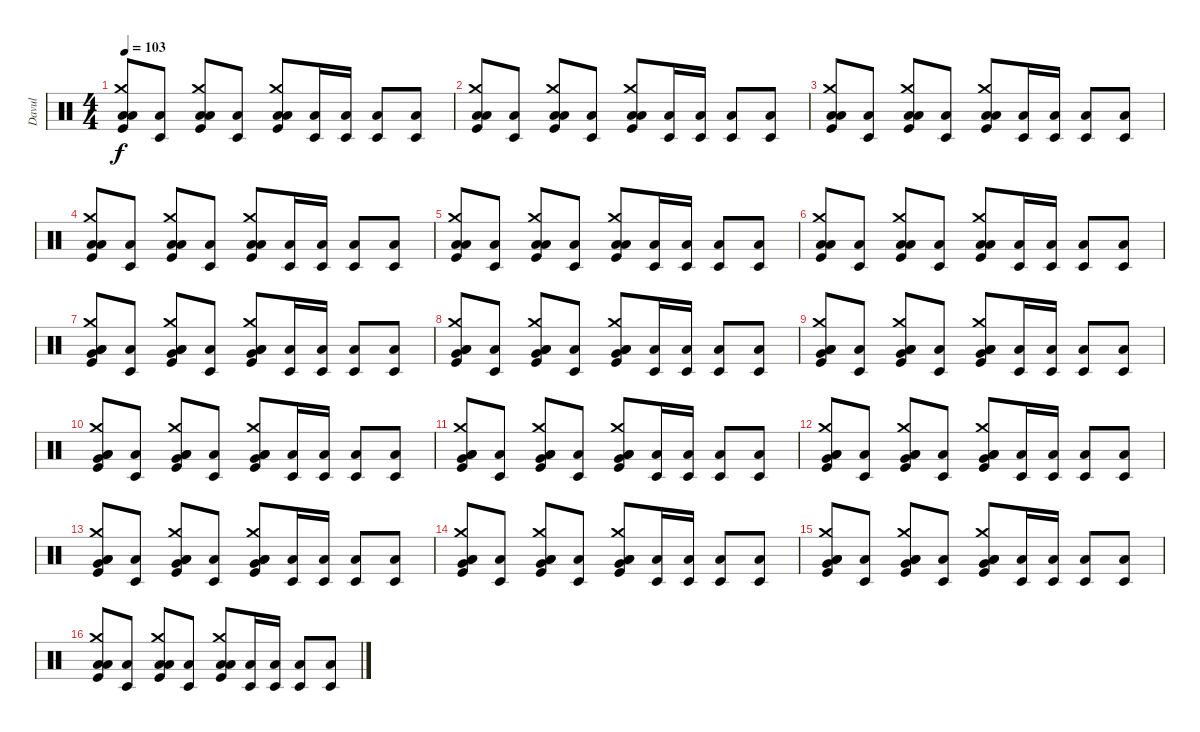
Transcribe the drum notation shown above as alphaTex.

\track ("Davul" "Davul") {instrument percussion}
\staff {score}
\articulation defaults
\ts (4 4)
\tempo 103
\clef neutral
\ks c
("Kick (hit)" "Low Tom (hit)" "Low Floor Tom (hit)" "Crash medium (hit)").8{dy f} ("Timbale low (hit)" "Low Floor Tom (hit)").8 ("Kick (hit)" "Low Tom (hit)" "Low Floor Tom (hit)" "Crash medium (hit)").8 ("Timbale low (hit)" "Low Floor Tom (hit)").8 ("Kick (hit)" "Low Tom (hit)" "Low Floor Tom (hit)" "Crash medium (hit)").8 ("Timbale low (hit)" "Low Floor Tom (hit)").16 ("Timbale low (hit)" "Low Floor Tom (hit)").16 ("Timbale low (hit)" "Low Floor Tom (hit)").8 ("Timbale low (hit)" "Low Floor Tom (hit)").8 |
("Kick (hit)" "Low Tom (hit)" "Low Floor Tom (hit)" "Crash medium (hit)").8 ("Timbale low (hit)" "Low Floor Tom (hit)").8 ("Kick (hit)" "Low Tom (hit)" "Low Floor Tom (hit)" "Crash medium (hit)").8 ("Timbale low (hit)" "Low Floor Tom (hit)").8 ("Kick (hit)" "Low Tom (hit)" "Low Floor Tom (hit)" "Crash medium (hit)").8 ("Timbale low (hit)" "Low Floor Tom (hit)").16 ("Timbale low (hit)" "Low Floor Tom (hit)").16 ("Timbale low (hit)" "Low Floor Tom (hit)").8 ("Timbale low (hit)" "Low Floor Tom (hit)").8 |
("Kick (hit)" "Low Tom (hit)" "Low Floor Tom (hit)" "Crash medium (hit)").8 ("Timbale low (hit)" "Low Floor Tom (hit)").8 ("Kick (hit)" "Low Tom (hit)" "Low Floor Tom (hit)" "Crash medium (hit)").8 ("Timbale low (hit)" "Low Floor Tom (hit)").8 ("Kick (hit)" "Low Tom (hit)" "Low Floor Tom (hit)" "Crash medium (hit)").8 ("Timbale low (hit)" "Low Floor Tom (hit)").16 ("Timbale low (hit)" "Low Floor Tom (hit)").16 ("Timbale low (hit)" "Low Floor Tom (hit)").8 ("Timbale low (hit)" "Low Floor Tom (hit)").8 |
("Kick (hit)" "Low Tom (hit)" "Low Floor Tom (hit)" "Crash medium (hit)").8 ("Timbale low (hit)" "Low Floor Tom (hit)").8 ("Kick (hit)" "Low Tom (hit)" "Low Floor Tom (hit)" "Crash medium (hit)").8 ("Timbale low (hit)" "Low Floor Tom (hit)").8 ("Kick (hit)" "Low Tom (hit)" "Low Floor Tom (hit)" "Crash medium (hit)").8 ("Timbale low (hit)" "Low Floor Tom (hit)").16 ("Timbale low (hit)" "Low Floor Tom (hit)").16 ("Timbale low (hit)" "Low Floor Tom (hit)").8 ("Timbale low (hit)" "Low Floor Tom (hit)").8 |
("Kick (hit)" "Low Tom (hit)" "Low Floor Tom (hit)" "Crash medium (hit)").8 ("Timbale low (hit)" "Low Floor Tom (hit)").8 ("Kick (hit)" "Low Tom (hit)" "Low Floor Tom (hit)" "Crash medium (hit)").8 ("Timbale low (hit)" "Low Floor Tom (hit)").8 ("Kick (hit)" "Low Tom (hit)" "Low Floor Tom (hit)" "Crash medium (hit)").8 ("Timbale low (hit)" "Low Floor Tom (hit)").16 ("Timbale low (hit)" "Low Floor Tom (hit)").16 ("Timbale low (hit)" "Low Floor Tom (hit)").8 ("Timbale low (hit)" "Low Floor Tom (hit)").8 |
("Kick (hit)" "Low Tom (hit)" "Low Floor Tom (hit)" "Crash medium (hit)").8 ("Timbale low (hit)" "Low Floor Tom (hit)").8 ("Kick (hit)" "Low Tom (hit)" "Low Floor Tom (hit)" "Crash medium (hit)").8 ("Timbale low (hit)" "Low Floor Tom (hit)").8 ("Kick (hit)" "Low Tom (hit)" "Low Floor Tom (hit)" "Crash medium (hit)").8 ("Timbale low (hit)" "Low Floor Tom (hit)").16 ("Timbale low (hit)" "Low Floor Tom (hit)").16 ("Timbale low (hit)" "Low Floor Tom (hit)").8 ("Timbale low (hit)" "Low Floor Tom (hit)").8 |
("Kick (hit)" "Low Tom (hit)" "Low Floor Tom (hit)" "Very Low Tom (hit)" "Crash medium (hit)").8 ("Timbale low (hit)" "Low Floor Tom (hit)").8 ("Kick (hit)" "Low Tom (hit)" "Low Floor Tom (hit)" "Very Low Tom (hit)" "Crash medium (hit)").8 ("Timbale low (hit)" "Low Floor Tom (hit)").8 ("Kick (hit)" "Low Tom (hit)" "Low Floor Tom (hit)" "Very Low Tom (hit)" "Crash medium (hit)").8 ("Timbale low (hit)" "Low Floor Tom (hit)").16 ("Timbale low (hit)" "Low Floor Tom (hit)").16 ("Timbale low (hit)" "Low Floor Tom (hit)").8 ("Timbale low (hit)" "Low Floor Tom (hit)").8 |
("Kick (hit)" "Low Tom (hit)" "Low Floor Tom (hit)" "Very Low Tom (hit)" "Crash medium (hit)").8 ("Timbale low (hit)" "Low Floor Tom (hit)").8 ("Kick (hit)" "Low Tom (hit)" "Low Floor Tom (hit)" "Very Low Tom (hit)" "Crash medium (hit)").8 ("Timbale low (hit)" "Low Floor Tom (hit)").8 ("Kick (hit)" "Low Tom (hit)" "Low Floor Tom (hit)" "Very Low Tom (hit)" "Crash medium (hit)").8 ("Timbale low (hit)" "Low Floor Tom (hit)").16 ("Timbale low (hit)" "Low Floor Tom (hit)").16 ("Timbale low (hit)" "Low Floor Tom (hit)").8 ("Timbale low (hit)" "Low Floor Tom (hit)").8 |
("Kick (hit)" "Low Tom (hit)" "Low Floor Tom (hit)" "Very Low Tom (hit)" "Crash medium (hit)").8 ("Timbale low (hit)" "Low Floor Tom (hit)").8 ("Kick (hit)" "Low Tom (hit)" "Low Floor Tom (hit)" "Very Low Tom (hit)" "Crash medium (hit)").8 ("Timbale low (hit)" "Low Floor Tom (hit)").8 ("Kick (hit)" "Low Tom (hit)" "Low Floor Tom (hit)" "Very Low Tom (hit)" "Crash medium (hit)").8 ("Timbale low (hit)" "Low Floor Tom (hit)").16 ("Timbale low (hit)" "Low Floor Tom (hit)").16 ("Timbale low (hit)" "Low Floor Tom (hit)").8 ("Timbale low (hit)" "Low Floor Tom (hit)").8 |
("Kick (hit)" "Low Tom (hit)" "Low Floor Tom (hit)" "Very Low Tom (hit)" "Crash medium (hit)").8 ("Timbale low (hit)" "Low Floor Tom (hit)").8 ("Kick (hit)" "Low Tom (hit)" "Low Floor Tom (hit)" "Very Low Tom (hit)" "Crash medium (hit)").8 ("Timbale low (hit)" "Low Floor Tom (hit)").8 ("Kick (hit)" "Low Tom (hit)" "Low Floor Tom (hit)" "Very Low Tom (hit)" "Crash medium (hit)").8 ("Timbale low (hit)" "Low Floor Tom (hit)").16 ("Timbale low (hit)" "Low Floor Tom (hit)").16 ("Timbale low (hit)" "Low Floor Tom (hit)").8 ("Timbale low (hit)" "Low Floor Tom (hit)").8 |
("Kick (hit)" "Low Tom (hit)" "Low Floor Tom (hit)" "Very Low Tom (hit)" "Crash medium (hit)").8 ("Timbale low (hit)" "Low Floor Tom (hit)").8 ("Kick (hit)" "Low Tom (hit)" "Low Floor Tom (hit)" "Very Low Tom (hit)" "Crash medium (hit)").8 ("Timbale low (hit)" "Low Floor Tom (hit)").8 ("Kick (hit)" "Low Tom (hit)" "Low Floor Tom (hit)" "Very Low Tom (hit)" "Crash medium (hit)").8 ("Timbale low (hit)" "Low Floor Tom (hit)").16 ("Timbale low (hit)" "Low Floor Tom (hit)").16 ("Timbale low (hit)" "Low Floor Tom (hit)").8 ("Timbale low (hit)" "Low Floor Tom (hit)").8 |
("Kick (hit)" "Low Tom (hit)" "Low Floor Tom (hit)" "Very Low Tom (hit)" "Crash medium (hit)").8 ("Timbale low (hit)" "Low Floor Tom (hit)").8 ("Kick (hit)" "Low Tom (hit)" "Low Floor Tom (hit)" "Very Low Tom (hit)" "Crash medium (hit)").8 ("Timbale low (hit)" "Low Floor Tom (hit)").8 ("Kick (hit)" "Low Tom (hit)" "Low Floor Tom (hit)" "Very Low Tom (hit)" "Crash medium (hit)").8 ("Timbale low (hit)" "Low Floor Tom (hit)").16 ("Timbale low (hit)" "Low Floor Tom (hit)").16 ("Timbale low (hit)" "Low Floor Tom (hit)").8 ("Timbale low (hit)" "Low Floor Tom (hit)").8 |
("Kick (hit)" "Low Tom (hit)" "Low Floor Tom (hit)" "Very Low Tom (hit)" "Crash medium (hit)").8 ("Timbale low (hit)" "Low Floor Tom (hit)").8 ("Kick (hit)" "Low Tom (hit)" "Low Floor Tom (hit)" "Very Low Tom (hit)" "Crash medium (hit)").8 ("Timbale low (hit)" "Low Floor Tom (hit)").8 ("Kick (hit)" "Low Tom (hit)" "Low Floor Tom (hit)" "Very Low Tom (hit)" "Crash medium (hit)").8 ("Timbale low (hit)" "Low Floor Tom (hit)").16 ("Timbale low (hit)" "Low Floor Tom (hit)").16 ("Timbale low (hit)" "Low Floor Tom (hit)").8 ("Timbale low (hit)" "Low Floor Tom (hit)").8 |
("Kick (hit)" "Low Tom (hit)" "Low Floor Tom (hit)" "Very Low Tom (hit)" "Crash medium (hit)").8 ("Timbale low (hit)" "Low Floor Tom (hit)").8 ("Kick (hit)" "Low Tom (hit)" "Low Floor Tom (hit)" "Very Low Tom (hit)" "Crash medium (hit)").8 ("Timbale low (hit)" "Low Floor Tom (hit)").8 ("Kick (hit)" "Low Tom (hit)" "Low Floor Tom (hit)" "Very Low Tom (hit)" "Crash medium (hit)").8 ("Timbale low (hit)" "Low Floor Tom (hit)").16 ("Timbale low (hit)" "Low Floor Tom (hit)").16 ("Timbale low (hit)" "Low Floor Tom (hit)").8 ("Timbale low (hit)" "Low Floor Tom (hit)").8 |
("Kick (hit)" "Low Tom (hit)" "Low Floor Tom (hit)" "Very Low Tom (hit)" "Crash medium (hit)").8 ("Timbale low (hit)" "Low Floor Tom (hit)").8 ("Kick (hit)" "Low Tom (hit)" "Low Floor Tom (hit)" "Very Low Tom (hit)" "Crash medium (hit)").8 ("Timbale low (hit)" "Low Floor Tom (hit)").8 ("Kick (hit)" "Low Tom (hit)" "Low Floor Tom (hit)" "Very Low Tom (hit)" "Crash medium (hit)").8 ("Timbale low (hit)" "Low Floor Tom (hit)").16 ("Timbale low (hit)" "Low Floor Tom (hit)").16 ("Timbale low (hit)" "Low Floor Tom (hit)").8 ("Timbale low (hit)" "Low Floor Tom (hit)").8 |
("Kick (hit)" "Low Tom (hit)" "Low Floor Tom (hit)" "Crash medium (hit)").8 ("Timbale low (hit)" "Low Floor Tom (hit)").8 ("Kick (hit)" "Low Tom (hit)" "Low Floor Tom (hit)" "Crash medium (hit)").8 ("Timbale low (hit)" "Low Floor Tom (hit)").8 ("Kick (hit)" "Low Tom (hit)" "Low Floor Tom (hit)" "Crash medium (hit)").8 ("Timbale low (hit)" "Low Floor Tom (hit)").16 ("Timbale low (hit)" "Low Floor Tom (hit)").16 ("Timbale low (hit)" "Low Floor Tom (hit)").8 ("Timbale low (hit)" "Low Floor Tom (hit)").8
